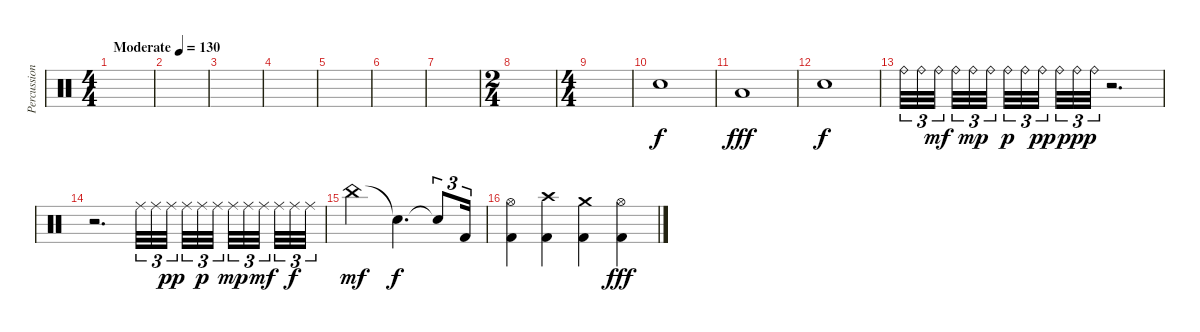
\track ("Percussion" "Percussion") {instrument percussion}
\staff {score}
\articulation defaults
\ts (4 4)
\tempo (130 "Moderate")
\tempo 43
\tempo (130 "Moderate")
\clef neutral
\ks c
|
|
|
|
|
|
|
\ts (2 4)
|
\ts (4 4)
|
"Snare (hit) 2".1 |
"Low Floor Tom (hit)".1{dy fff} |
"Snare (hit) 2".1{dy f} |
"Ride (bell)".32{tu (3 2)} "Ride (bell)".32{tu (3 2)} "Ride (bell)".32{tu (3 2) dy mf beam splitsecondary} "Ride (bell)".32{tu (3 2)} "Ride (bell)".32{tu (3 2) dy mp} "Ride (bell)".32{tu (3 2) beam splitsecondary} "Ride (bell)".32{tu (3 2) dy p} "Ride (bell)".32{tu (3 2)} "Ride (bell)".32{tu (3 2) dy pp beam splitsecondary} "Ride (bell)".32{tu (3 2)} "Ride (bell)".32{tu (3 2) dy ppp} "Ride (bell)".32{tu (3 2)} r.2{d} |
r.2{d} "Ride (middle)".32{tu (3 2)} "Ride (middle)".32{tu (3 2)} "Ride (middle)".32{tu (3 2) dy pp beam splitsecondary} "Ride (middle)".32{tu (3 2)} "Ride (middle)".32{tu (3 2) dy p} "Ride (middle)".32{tu (3 2) beam splitsecondary} "Ride (middle)".32{tu (3 2) dy mp} "Ride (middle)".32{tu (3 2)} "Ride (middle)".32{tu (3 2) dy mf beam splitsecondary} "Ride (middle)".32{tu (3 2)} "Ride (middle)".32{tu (3 2) dy f} "Ride (middle)".32{tu (3 2)} |
"China (hit)".2{dy mf} "Snare (hit)"{t}.4{d dy f} "Snare (hit)"{t}.8{tu (3 2)} "Kick (hit) 2".16{tu (3 2)} |
("Hi-Hat (open)" "Kick (hit) 2").4 ("Crash high (hit)" "Kick (hit) 2").4 ("Crash medium (hit)" "Kick (hit) 2").4 ("Hi-Hat (open)" "Kick (hit) 2").4{dy fff}
